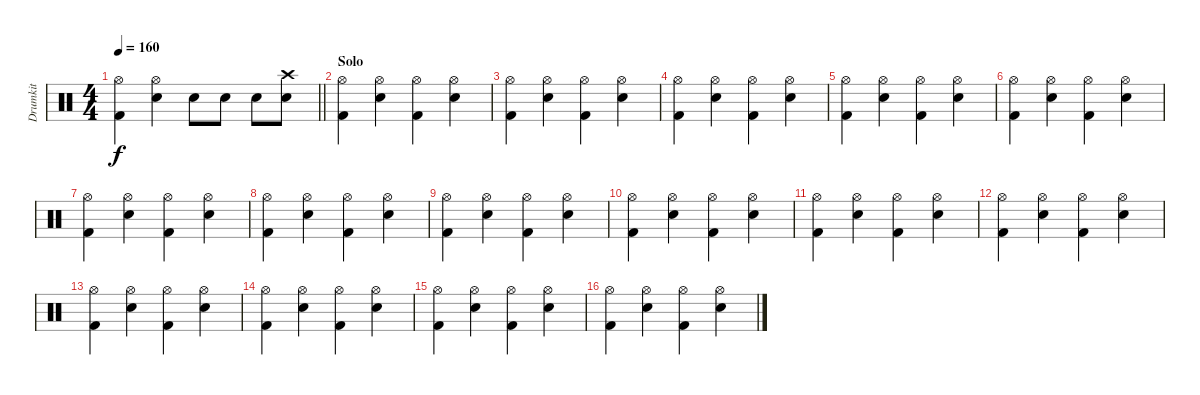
\track ("Drumkit" "Drumkit") {instrument percussion}
\staff {score}
\articulation defaults
\ts (4 4)
\tempo 160
\clef neutral
\barLineRight lightlight
\ks c
("Hi-Hat (open)" "Kick (hit) 2").4{dy f} ("Hi-Hat (open)" "Electric Snare (hit)").4 "Electric Snare (hit)".8 "Electric Snare (hit)".8 "Electric Snare (hit)".8 ("Crash high (hit)" "Electric Snare (hit)").8 |
\section ("" "Solo")
("Hi-Hat (open)" "Kick (hit) 2").4 ("Hi-Hat (open)" "Electric Snare (hit)").4 ("Hi-Hat (open)" "Kick (hit) 2").4 ("Hi-Hat (open)" "Electric Snare (hit)").4 |
("Hi-Hat (open)" "Kick (hit) 2").4 ("Hi-Hat (open)" "Electric Snare (hit)").4 ("Hi-Hat (open)" "Kick (hit) 2").4 ("Hi-Hat (open)" "Electric Snare (hit)").4 |
("Hi-Hat (open)" "Kick (hit) 2").4 ("Hi-Hat (open)" "Electric Snare (hit)").4 ("Hi-Hat (open)" "Kick (hit) 2").4 ("Hi-Hat (open)" "Electric Snare (hit)").4 |
("Hi-Hat (open)" "Kick (hit) 2").4 ("Hi-Hat (open)" "Electric Snare (hit)").4 ("Hi-Hat (open)" "Kick (hit) 2").4 ("Hi-Hat (open)" "Electric Snare (hit)").4 |
("Hi-Hat (open)" "Kick (hit) 2").4 ("Hi-Hat (open)" "Electric Snare (hit)").4 ("Hi-Hat (open)" "Kick (hit) 2").4 ("Hi-Hat (open)" "Electric Snare (hit)").4 |
("Hi-Hat (open)" "Kick (hit) 2").4 ("Hi-Hat (open)" "Electric Snare (hit)").4 ("Hi-Hat (open)" "Kick (hit) 2").4 ("Hi-Hat (open)" "Electric Snare (hit)").4 |
("Hi-Hat (open)" "Kick (hit) 2").4 ("Hi-Hat (open)" "Electric Snare (hit)").4 ("Hi-Hat (open)" "Kick (hit) 2").4 ("Hi-Hat (open)" "Electric Snare (hit)").4 |
("Hi-Hat (open)" "Kick (hit) 2").4 ("Hi-Hat (open)" "Electric Snare (hit)").4 ("Hi-Hat (open)" "Kick (hit) 2").4 ("Hi-Hat (open)" "Electric Snare (hit)").4 |
("Hi-Hat (open)" "Kick (hit) 2").4 ("Hi-Hat (open)" "Electric Snare (hit)").4 ("Hi-Hat (open)" "Kick (hit) 2").4 ("Hi-Hat (open)" "Electric Snare (hit)").4 |
("Hi-Hat (open)" "Kick (hit) 2").4 ("Hi-Hat (open)" "Electric Snare (hit)").4 ("Hi-Hat (open)" "Kick (hit) 2").4 ("Hi-Hat (open)" "Electric Snare (hit)").4 |
("Hi-Hat (open)" "Kick (hit) 2").4 ("Hi-Hat (open)" "Electric Snare (hit)").4 ("Hi-Hat (open)" "Kick (hit) 2").4 ("Hi-Hat (open)" "Electric Snare (hit)").4 |
("Hi-Hat (open)" "Kick (hit) 2").4 ("Hi-Hat (open)" "Electric Snare (hit)").4 ("Hi-Hat (open)" "Kick (hit) 2").4 ("Hi-Hat (open)" "Electric Snare (hit)").4 |
("Hi-Hat (open)" "Kick (hit) 2").4 ("Hi-Hat (open)" "Electric Snare (hit)").4 ("Hi-Hat (open)" "Kick (hit) 2").4 ("Hi-Hat (open)" "Electric Snare (hit)").4 |
("Hi-Hat (open)" "Kick (hit) 2").4 ("Hi-Hat (open)" "Electric Snare (hit)").4 ("Hi-Hat (open)" "Kick (hit) 2").4 ("Hi-Hat (open)" "Electric Snare (hit)").4 |
("Hi-Hat (open)" "Kick (hit) 2").4 ("Hi-Hat (open)" "Electric Snare (hit)").4 ("Hi-Hat (open)" "Kick (hit) 2").4 ("Hi-Hat (open)" "Electric Snare (hit)").4
